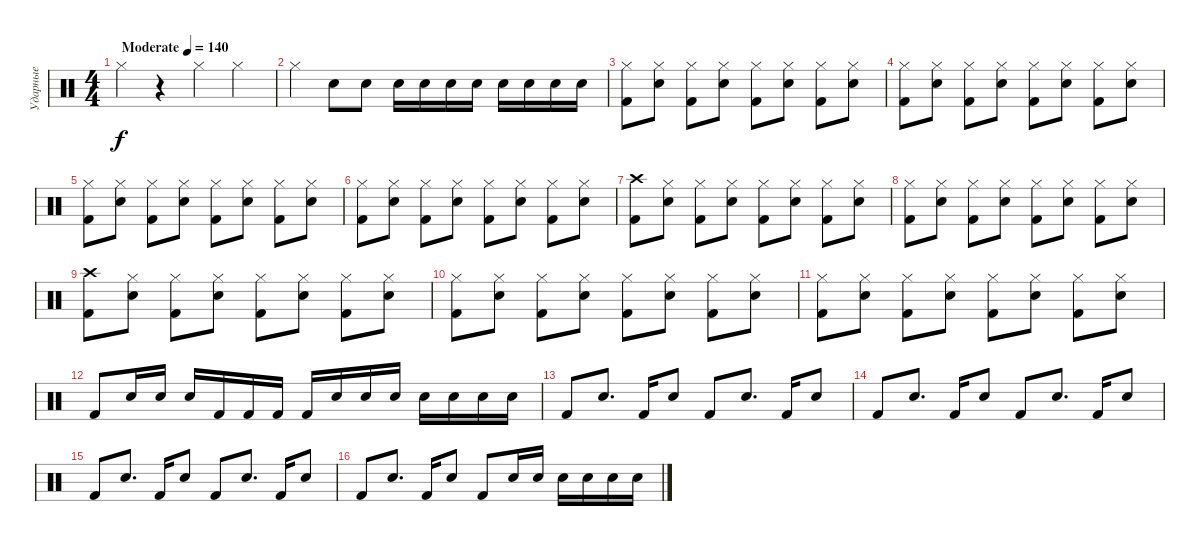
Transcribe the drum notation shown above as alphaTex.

\track ("Ударные" "Ударные") {instrument percussion}
\staff {score}
\articulation defaults
\ts (4 4)
\tempo (140 "Moderate")
\clef neutral
\ks c "Hi-Hat (closed)".4{dy f}
r.4 "Hi-Hat (closed)".4 "Hi-Hat (closed)".4 |
"Hi-Hat (closed)".4 "Electric Snare (hit)".8 "Electric Snare (hit)".8 "Electric Snare (hit)".16 "Electric Snare (hit)".16 "Electric Snare (hit)".16 "Electric Snare (hit)".16 "Electric Snare (hit)".16 "Electric Snare (hit)".16 "Electric Snare (hit)".16 "Electric Snare (hit)".16 |
("Kick (hit) 2" "Hi-Hat (closed)").8 ("Electric Snare (hit)" "Hi-Hat (closed)").8 ("Kick (hit) 2" "Hi-Hat (closed)").8 ("Electric Snare (hit)" "Hi-Hat (closed)").8 ("Kick (hit) 2" "Hi-Hat (closed)").8 ("Electric Snare (hit)" "Hi-Hat (closed)").8 ("Kick (hit) 2" "Hi-Hat (closed)").8 ("Electric Snare (hit)" "Hi-Hat (closed)").8 |
("Kick (hit) 2" "Hi-Hat (closed)").8 ("Electric Snare (hit)" "Hi-Hat (closed)").8 ("Kick (hit) 2" "Hi-Hat (closed)").8 ("Electric Snare (hit)" "Hi-Hat (closed)").8 ("Kick (hit) 2" "Hi-Hat (closed)").8 ("Electric Snare (hit)" "Hi-Hat (closed)").8 ("Kick (hit) 2" "Hi-Hat (closed)").8 ("Electric Snare (hit)" "Hi-Hat (closed)").8 |
("Kick (hit) 2" "Hi-Hat (closed)").8 ("Electric Snare (hit)" "Hi-Hat (closed)").8 ("Kick (hit) 2" "Hi-Hat (closed)").8 ("Electric Snare (hit)" "Hi-Hat (closed)").8 ("Kick (hit) 2" "Hi-Hat (closed)").8 ("Electric Snare (hit)" "Hi-Hat (closed)").8 ("Kick (hit) 2" "Hi-Hat (closed)").8 ("Electric Snare (hit)" "Hi-Hat (closed)").8 |
("Kick (hit) 2" "Hi-Hat (closed)").8 ("Electric Snare (hit)" "Hi-Hat (closed)").8 ("Kick (hit) 2" "Hi-Hat (closed)").8 ("Electric Snare (hit)" "Hi-Hat (closed)").8 ("Kick (hit) 2" "Hi-Hat (closed)").8 ("Electric Snare (hit)" "Hi-Hat (closed)").8 ("Kick (hit) 2" "Hi-Hat (closed)").8 ("Electric Snare (hit)" "Hi-Hat (closed)").8 |
("Kick (hit) 2" "Crash high (hit)").8 ("Electric Snare (hit)" "Hi-Hat (closed)").8 ("Kick (hit) 2" "Hi-Hat (closed)").8 ("Electric Snare (hit)" "Hi-Hat (closed)").8 ("Kick (hit) 2" "Hi-Hat (closed)").8 ("Electric Snare (hit)" "Hi-Hat (closed)").8 ("Kick (hit) 2" "Hi-Hat (closed)").8 ("Electric Snare (hit)" "Hi-Hat (closed)").8 |
("Kick (hit) 2" "Hi-Hat (closed)").8 ("Electric Snare (hit)" "Hi-Hat (closed)").8 ("Kick (hit) 2" "Hi-Hat (closed)").8 ("Electric Snare (hit)" "Hi-Hat (closed)").8 ("Kick (hit) 2" "Hi-Hat (closed)").8 ("Electric Snare (hit)" "Hi-Hat (closed)").8 ("Kick (hit) 2" "Hi-Hat (closed)").8 ("Electric Snare (hit)" "Hi-Hat (closed)").8 |
("Kick (hit) 2" "Crash high (hit)").8 ("Electric Snare (hit)" "Hi-Hat (closed)").8 ("Kick (hit) 2" "Hi-Hat (closed)").8 ("Electric Snare (hit)" "Hi-Hat (closed)").8 ("Kick (hit) 2" "Hi-Hat (closed)").8 ("Electric Snare (hit)" "Hi-Hat (closed)").8 ("Kick (hit) 2" "Hi-Hat (closed)").8 ("Electric Snare (hit)" "Hi-Hat (closed)").8 |
("Kick (hit) 2" "Hi-Hat (closed)").8 ("Electric Snare (hit)" "Hi-Hat (closed)").8 ("Kick (hit) 2" "Hi-Hat (closed)").8 ("Electric Snare (hit)" "Hi-Hat (closed)").8 ("Kick (hit) 2" "Hi-Hat (closed)").8 ("Electric Snare (hit)" "Hi-Hat (closed)").8 ("Kick (hit) 2" "Hi-Hat (closed)").8 ("Electric Snare (hit)" "Hi-Hat (closed)").8 |
("Kick (hit) 2" "Hi-Hat (closed)").8 ("Electric Snare (hit)" "Hi-Hat (closed)").8 ("Kick (hit) 2" "Hi-Hat (closed)").8 ("Electric Snare (hit)" "Hi-Hat (closed)").8 ("Kick (hit) 2" "Hi-Hat (closed)").8 ("Electric Snare (hit)" "Hi-Hat (closed)").8 ("Kick (hit) 2" "Hi-Hat (closed)").8 ("Electric Snare (hit)" "Hi-Hat (closed)").8 |
"Kick (hit) 2".8 "Electric Snare (hit)".16 "Electric Snare (hit)".16 "Electric Snare (hit)".16 "Kick (hit) 2".16 "Kick (hit) 2".16 "Kick (hit) 2".16 "Kick (hit) 2".16 "Electric Snare (hit)".16 "Electric Snare (hit)".16 "Electric Snare (hit)".16 "Electric Snare (hit)".16 "Electric Snare (hit)".16 "Electric Snare (hit)".16 "Electric Snare (hit)".16 |
"Kick (hit) 2".8 "Electric Snare (hit)".8{d} "Kick (hit) 2".16 "Electric Snare (hit)".8 "Kick (hit) 2".8 "Electric Snare (hit)".8{d} "Kick (hit) 2".16 "Electric Snare (hit)".8 |
"Kick (hit) 2".8 "Electric Snare (hit)".8{d} "Kick (hit) 2".16 "Electric Snare (hit)".8 "Kick (hit) 2".8 "Electric Snare (hit)".8{d} "Kick (hit) 2".16 "Electric Snare (hit)".8 |
"Kick (hit) 2".8 "Electric Snare (hit)".8{d} "Kick (hit) 2".16 "Electric Snare (hit)".8 "Kick (hit) 2".8 "Electric Snare (hit)".8{d} "Kick (hit) 2".16 "Electric Snare (hit)".8 |
"Kick (hit) 2".8 "Electric Snare (hit)".8{d} "Kick (hit) 2".16 "Electric Snare (hit)".8 "Kick (hit) 2".8 "Electric Snare (hit)".16 "Electric Snare (hit)".16 "Electric Snare (hit)".16 "Electric Snare (hit)".16 "Electric Snare (hit)".16 "Electric Snare (hit)".16
